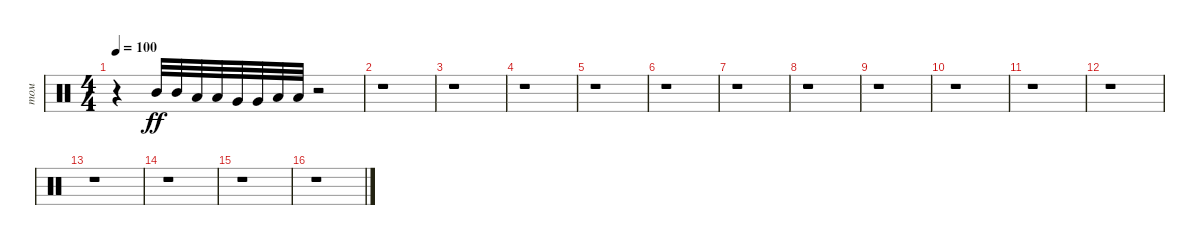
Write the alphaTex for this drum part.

\track ("том" "том") {instrument percussion}
\staff {score}
\articulation defaults
\ts (4 4)
\tempo 100
\clef neutral
\ks c
r.4{dy ff} "Mid Tom (hit)".32 "Mid Tom (hit)".32 "Low Tom (hit)".32 "Low Tom (hit)".32 "Very Low Tom (hit)".32 "Very Low Tom (hit)".32 "Low Floor Tom (hit)".32 "Low Floor Tom (hit)".32 r.2 |
r.1 |
r.1 |
r.1 |
r.1 |
r.1 |
r.1 |
r.1 |
r.1 |
r.1 |
r.1 |
r.1 |
r.1 |
r.1 |
r.1 |
r.1
